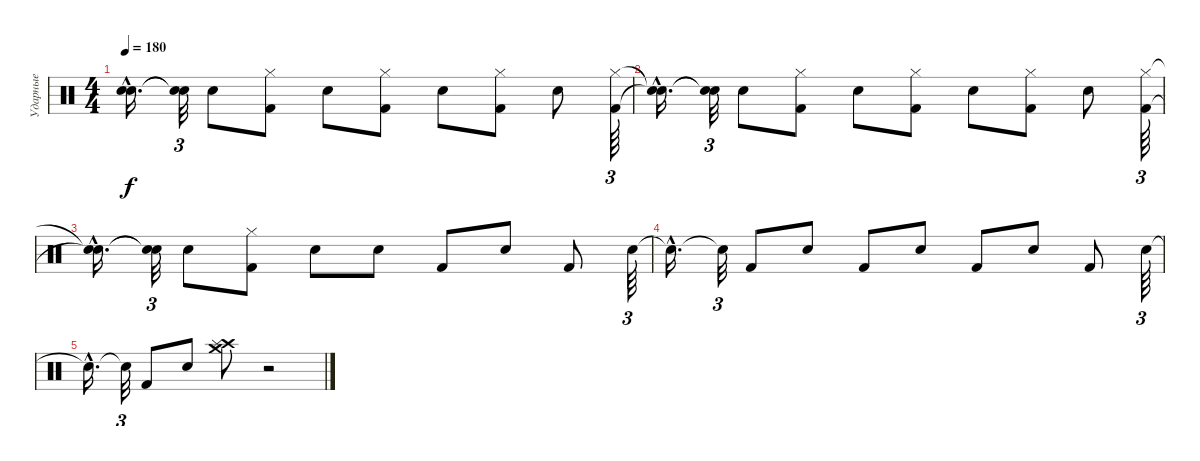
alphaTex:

\track ("Ударные" "Ударные") {instrument percussion}
\staff {score}
\articulation defaults
\ts (4 4)
\tempo 180
\clef neutral
\ks c
("Snare (hit)"{hac t} "Snare (hit)"{hac t}).16{d dy f} ("Snare (hit)"{t} "Snare (hit)"{t}).32{tu (3 2)} "Snare (hit) 2".8 ("Hi-Hat (closed)" "Kick (hit) 2").8 "Snare (hit) 2".8 ("Hi-Hat (closed)" "Kick (hit) 2").8 "Snare (hit) 2".8 ("Hi-Hat (closed)" "Kick (hit) 2").8 "Snare (hit) 2".8 ("Hi-Hat (closed)" "Kick (hit) 2").64{tu (3 2)} |
("Snare (hit)"{hac t} "Snare (hit)"{hac t}).16{d} ("Snare (hit)"{t} "Snare (hit)"{t}).32{tu (3 2)} "Snare (hit) 2".8 ("Hi-Hat (closed)" "Kick (hit) 2").8 "Snare (hit) 2".8 ("Hi-Hat (closed)" "Kick (hit) 2").8 "Snare (hit) 2".8 ("Hi-Hat (closed)" "Kick (hit) 2").8 "Snare (hit) 2".8 ("Hi-Hat (closed)" "Kick (hit) 2").64{tu (3 2)} |
("Snare (hit)"{hac t} "Snare (hit)"{hac t}).16{d} ("Snare (hit)"{t} "Snare (hit)"{t}).32{tu (3 2)} "Snare (hit) 2".8 ("Hi-Hat (closed)" "Kick (hit) 2").8 "Snare (hit) 2".8 "Snare (hit) 2".8 "Kick (hit) 2".8 "Snare (hit) 2".8 "Kick (hit) 2".8 "Snare (hit) 2".64{tu (3 2)} |
"Snare (hit)"{hac t}.16{d} "Snare (hit)"{t}.32{tu (3 2)} "Kick (hit) 2".8 "Snare (hit) 2".8 "Kick (hit) 2".8 "Snare (hit) 2".8 "Kick (hit) 2".8 "Snare (hit) 2".8 "Kick (hit) 2".8 "Snare (hit) 2".64{tu (3 2)} |
"Snare (hit)"{hac t}.16{d} "Snare (hit)"{t}.32{tu (3 2)} "Kick (hit) 2".8 "Snare (hit) 2".8 ("Crash high (hit)" "Crash medium (hit)" "Splash (hit)").8 r.2
